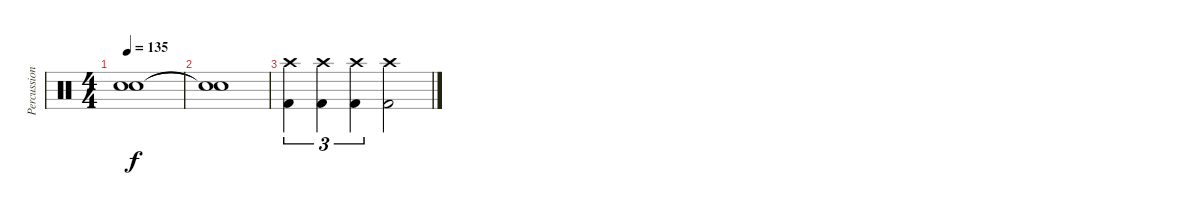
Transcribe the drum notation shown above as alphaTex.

\track ("Percussion" "Percussion") {instrument percussion}
\staff {score}
\articulation defaults
\ts (4 4)
\tempo 135
\clef neutral
\ks c
("Snare (hit)"{t} "Snare (hit)"{t}).1{dy f} |
("Snare (hit)"{t} "Snare (hit)"{t}).1 |
("Kick (hit) 2" "Crash high (hit)").4{tu (3 2)} ("Kick (hit) 2" "Crash high (hit)").4{tu (3 2)} ("Kick (hit) 2" "Crash high (hit)").4{tu (3 2)} ("Kick (hit) 2" "Crash high (hit)").2
